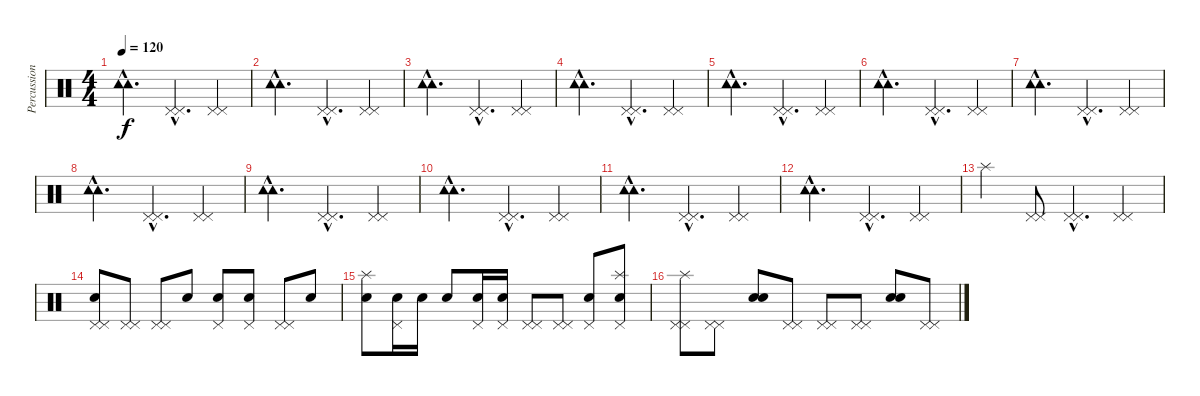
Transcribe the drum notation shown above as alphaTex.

\track ("Percussioni" "Percussion") {instrument percussion}
\staff {score}
\articulation defaults
\ts (4 4)
\tempo 120
\clef neutral
\ks c
("Tambourine (hit)"{hac} "Tambourine (hit)"{hac}).4{d dy f} ("Pedal Hi-Hat (hit)"{hac} "Pedal Hi-Hat (hit)"{hac}).4{d} ("Pedal Hi-Hat (hit)" "Pedal Hi-Hat (hit)").4 |
("Tambourine (hit)"{hac} "Tambourine (hit)"{hac}).4{d} ("Pedal Hi-Hat (hit)"{hac} "Pedal Hi-Hat (hit)"{hac}).4{d} ("Pedal Hi-Hat (hit)" "Pedal Hi-Hat (hit)").4 |
("Tambourine (hit)"{hac} "Tambourine (hit)"{hac}).4{d} ("Pedal Hi-Hat (hit)"{hac} "Pedal Hi-Hat (hit)"{hac}).4{d} ("Pedal Hi-Hat (hit)" "Pedal Hi-Hat (hit)").4 |
("Tambourine (hit)"{hac} "Tambourine (hit)"{hac}).4{d} ("Pedal Hi-Hat (hit)"{hac} "Pedal Hi-Hat (hit)"{hac}).4{d} ("Pedal Hi-Hat (hit)" "Pedal Hi-Hat (hit)").4 |
("Tambourine (hit)"{hac} "Tambourine (hit)"{hac}).4{d} ("Pedal Hi-Hat (hit)"{hac} "Pedal Hi-Hat (hit)"{hac}).4{d} ("Pedal Hi-Hat (hit)" "Pedal Hi-Hat (hit)").4 |
("Tambourine (hit)"{hac} "Tambourine (hit)"{hac}).4{d} ("Pedal Hi-Hat (hit)"{hac} "Pedal Hi-Hat (hit)"{hac}).4{d} ("Pedal Hi-Hat (hit)" "Pedal Hi-Hat (hit)").4 |
("Tambourine (hit)"{hac} "Tambourine (hit)"{hac}).4{d} ("Pedal Hi-Hat (hit)"{hac} "Pedal Hi-Hat (hit)"{hac}).4{d} ("Pedal Hi-Hat (hit)" "Pedal Hi-Hat (hit)").4 |
("Tambourine (hit)"{hac} "Tambourine (hit)"{hac}).4{d} ("Pedal Hi-Hat (hit)"{hac} "Pedal Hi-Hat (hit)"{hac}).4{d} ("Pedal Hi-Hat (hit)" "Pedal Hi-Hat (hit)").4 |
("Tambourine (hit)"{hac} "Tambourine (hit)"{hac}).4{d} ("Pedal Hi-Hat (hit)"{hac} "Pedal Hi-Hat (hit)"{hac}).4{d} ("Pedal Hi-Hat (hit)" "Pedal Hi-Hat (hit)").4 |
("Tambourine (hit)"{hac} "Tambourine (hit)"{hac}).4{d} ("Pedal Hi-Hat (hit)"{hac} "Pedal Hi-Hat (hit)"{hac}).4{d} ("Pedal Hi-Hat (hit)" "Pedal Hi-Hat (hit)").4 |
("Tambourine (hit)"{hac} "Tambourine (hit)"{hac}).4{d} ("Pedal Hi-Hat (hit)"{hac} "Pedal Hi-Hat (hit)"{hac}).4{d} ("Pedal Hi-Hat (hit)" "Pedal Hi-Hat (hit)").4 |
("Tambourine (hit)"{hac} "Tambourine (hit)"{hac}).4{d} ("Pedal Hi-Hat (hit)"{hac} "Pedal Hi-Hat (hit)"{hac}).4{d} ("Pedal Hi-Hat (hit)" "Pedal Hi-Hat (hit)").4 |
"Splash (hit)".4 ("Pedal Hi-Hat (hit)" "Pedal Hi-Hat (hit)").8 ("Pedal Hi-Hat (hit)"{hac} "Pedal Hi-Hat (hit)"{hac}).4{d} ("Pedal Hi-Hat (hit)" "Pedal Hi-Hat (hit)").4 |
("Pedal Hi-Hat (hit)" "Pedal Hi-Hat (hit)" "Snare (hit) 2").8 ("Pedal Hi-Hat (hit)" "Pedal Hi-Hat (hit)").8 ("Pedal Hi-Hat (hit)" "Pedal Hi-Hat (hit)").8 "Snare (hit) 2".8 ("Pedal Hi-Hat (hit)" "Snare (hit) 2").8 ("Pedal Hi-Hat (hit)" "Snare (hit) 2").8 ("Pedal Hi-Hat (hit)" "Pedal Hi-Hat (hit)").8 "Snare (hit) 2".8 |
("Splash (hit)" "Snare (hit) 2").8 ("Pedal Hi-Hat (hit)" "Snare (hit) 2").16 "Snare (hit) 2".16 "Snare (hit) 2".8 ("Pedal Hi-Hat (hit)" "Snare (hit) 2").16 ("Snare (hit) 2" "Pedal Hi-Hat (hit)").16 ("Pedal Hi-Hat (hit)" "Pedal Hi-Hat (hit)").8 ("Pedal Hi-Hat (hit)" "Pedal Hi-Hat (hit)").8 ("Snare (hit) 2" "Pedal Hi-Hat (hit)").8 ("Splash (hit)" "Pedal Hi-Hat (hit)" "Snare (hit) 2").8 |
("Splash (hit)" "Pedal Hi-Hat (hit)" "Pedal Hi-Hat (hit)").8 ("Pedal Hi-Hat (hit)" "Pedal Hi-Hat (hit)").8 ("Snare (hit) 2" "Snare (hit) 2").8 ("Pedal Hi-Hat (hit)" "Pedal Hi-Hat (hit)").8 ("Pedal Hi-Hat (hit)" "Pedal Hi-Hat (hit)").8 ("Pedal Hi-Hat (hit)" "Pedal Hi-Hat (hit)").8 ("Snare (hit) 2" "Snare (hit) 2").8 ("Pedal Hi-Hat (hit)" "Pedal Hi-Hat (hit)").8
